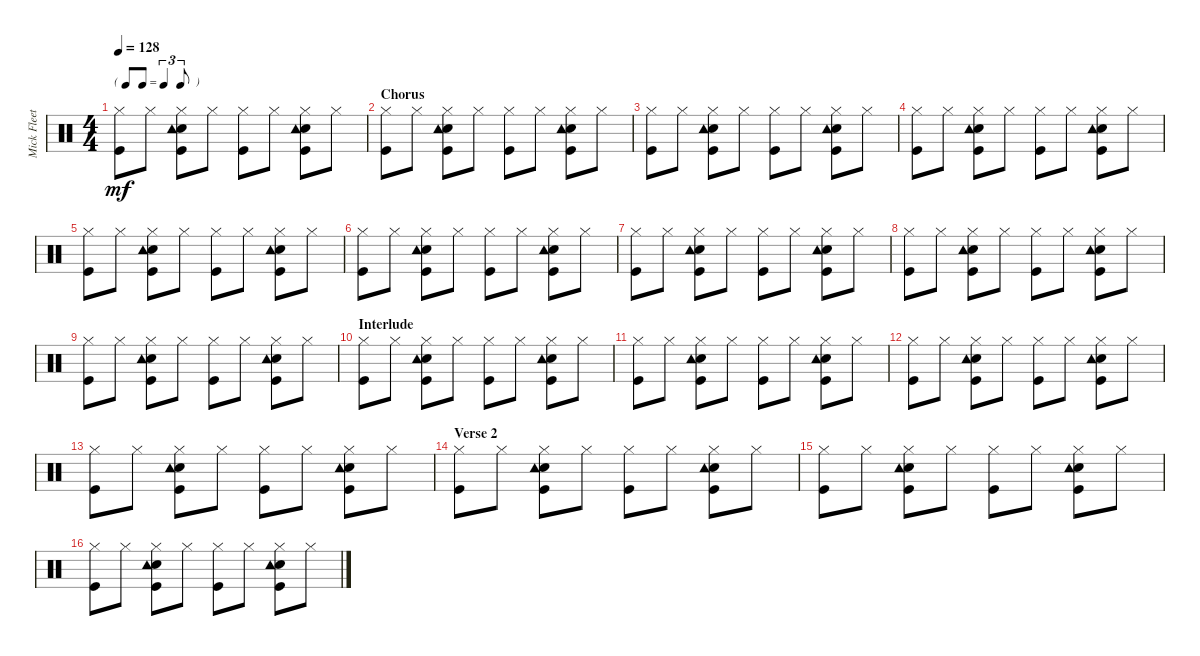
\track ("Mick Fleetwood - Drums" "Mick Fleet") {instrument percussion}
\staff {score}
\articulation defaults
\ts (4 4)
\tf triplet8th
\tempo 128
\clef neutral
\ks c
("Kick (hit)" "Hi-Hat (closed)").8{dy mf} "Hi-Hat (closed)".8 ("Kick (hit)" "Snare (hit) 2" "Hi-Hat (closed)" "Tambourine (hit)").8 "Hi-Hat (closed)".8 ("Kick (hit)" "Hi-Hat (closed)").8 "Hi-Hat (closed)".8 ("Kick (hit)" "Snare (hit) 2" "Hi-Hat (closed)" "Tambourine (hit)").8 "Hi-Hat (closed)".8 |
\section ("" "Chorus")
("Kick (hit)" "Hi-Hat (closed)").8 "Hi-Hat (closed)".8 ("Kick (hit)" "Snare (hit) 2" "Hi-Hat (closed)" "Tambourine (hit)").8 "Hi-Hat (closed)".8 ("Kick (hit)" "Hi-Hat (closed)").8 "Hi-Hat (closed)".8 ("Kick (hit)" "Snare (hit) 2" "Hi-Hat (closed)" "Tambourine (hit)").8 "Hi-Hat (closed)".8 |
("Kick (hit)" "Hi-Hat (closed)").8 "Hi-Hat (closed)".8 ("Kick (hit)" "Snare (hit) 2" "Hi-Hat (closed)" "Tambourine (hit)").8 "Hi-Hat (closed)".8 ("Kick (hit)" "Hi-Hat (closed)").8 "Hi-Hat (closed)".8 ("Kick (hit)" "Snare (hit) 2" "Hi-Hat (closed)" "Tambourine (hit)").8 "Hi-Hat (closed)".8 |
("Kick (hit)" "Hi-Hat (closed)").8 "Hi-Hat (closed)".8 ("Kick (hit)" "Snare (hit) 2" "Hi-Hat (closed)" "Tambourine (hit)").8 "Hi-Hat (closed)".8 ("Kick (hit)" "Hi-Hat (closed)").8 "Hi-Hat (closed)".8 ("Kick (hit)" "Snare (hit) 2" "Hi-Hat (closed)" "Tambourine (hit)").8 "Hi-Hat (closed)".8 |
("Kick (hit)" "Hi-Hat (closed)").8 "Hi-Hat (closed)".8 ("Kick (hit)" "Snare (hit) 2" "Hi-Hat (closed)" "Tambourine (hit)").8 "Hi-Hat (closed)".8 ("Kick (hit)" "Hi-Hat (closed)").8 "Hi-Hat (closed)".8 ("Kick (hit)" "Snare (hit) 2" "Hi-Hat (closed)" "Tambourine (hit)").8 "Hi-Hat (closed)".8 |
("Kick (hit)" "Hi-Hat (closed)").8 "Hi-Hat (closed)".8 ("Kick (hit)" "Snare (hit) 2" "Hi-Hat (closed)" "Tambourine (hit)").8 "Hi-Hat (closed)".8 ("Kick (hit)" "Hi-Hat (closed)").8 "Hi-Hat (closed)".8 ("Kick (hit)" "Snare (hit) 2" "Hi-Hat (closed)" "Tambourine (hit)").8 "Hi-Hat (closed)".8 |
("Kick (hit)" "Hi-Hat (closed)").8 "Hi-Hat (closed)".8 ("Kick (hit)" "Snare (hit) 2" "Hi-Hat (closed)" "Tambourine (hit)").8 "Hi-Hat (closed)".8 ("Kick (hit)" "Hi-Hat (closed)").8 "Hi-Hat (closed)".8 ("Kick (hit)" "Snare (hit) 2" "Hi-Hat (closed)" "Tambourine (hit)").8 "Hi-Hat (closed)".8 |
("Kick (hit)" "Hi-Hat (closed)").8 "Hi-Hat (closed)".8 ("Kick (hit)" "Snare (hit) 2" "Hi-Hat (closed)" "Tambourine (hit)").8 "Hi-Hat (closed)".8 ("Kick (hit)" "Hi-Hat (closed)").8 "Hi-Hat (closed)".8 ("Kick (hit)" "Snare (hit) 2" "Hi-Hat (closed)" "Tambourine (hit)").8 "Hi-Hat (closed)".8 |
("Kick (hit)" "Hi-Hat (closed)").8 "Hi-Hat (closed)".8 ("Kick (hit)" "Snare (hit) 2" "Hi-Hat (closed)" "Tambourine (hit)").8 "Hi-Hat (closed)".8 ("Kick (hit)" "Hi-Hat (closed)").8 "Hi-Hat (closed)".8 ("Kick (hit)" "Snare (hit) 2" "Hi-Hat (closed)" "Tambourine (hit)").8 "Hi-Hat (closed)".8 |
\section ("" "Interlude")
("Kick (hit)" "Hi-Hat (closed)").8 "Hi-Hat (closed)".8 ("Kick (hit)" "Snare (hit) 2" "Hi-Hat (closed)" "Tambourine (hit)").8 "Hi-Hat (closed)".8 ("Kick (hit)" "Hi-Hat (closed)").8 "Hi-Hat (closed)".8 ("Kick (hit)" "Snare (hit) 2" "Hi-Hat (closed)" "Tambourine (hit)").8 "Hi-Hat (closed)".8 |
("Kick (hit)" "Hi-Hat (closed)").8 "Hi-Hat (closed)".8 ("Kick (hit)" "Snare (hit) 2" "Hi-Hat (closed)" "Tambourine (hit)").8 "Hi-Hat (closed)".8 ("Kick (hit)" "Hi-Hat (closed)").8 "Hi-Hat (closed)".8 ("Kick (hit)" "Snare (hit) 2" "Hi-Hat (closed)" "Tambourine (hit)").8 "Hi-Hat (closed)".8 |
("Kick (hit)" "Hi-Hat (closed)").8 "Hi-Hat (closed)".8 ("Kick (hit)" "Snare (hit) 2" "Hi-Hat (closed)" "Tambourine (hit)").8 "Hi-Hat (closed)".8 ("Kick (hit)" "Hi-Hat (closed)").8 "Hi-Hat (closed)".8 ("Kick (hit)" "Snare (hit) 2" "Hi-Hat (closed)" "Tambourine (hit)").8 "Hi-Hat (closed)".8 |
("Kick (hit)" "Hi-Hat (closed)").8 "Hi-Hat (closed)".8 ("Kick (hit)" "Snare (hit) 2" "Hi-Hat (closed)" "Tambourine (hit)").8 "Hi-Hat (closed)".8 ("Kick (hit)" "Hi-Hat (closed)").8 "Hi-Hat (closed)".8 ("Kick (hit)" "Snare (hit) 2" "Hi-Hat (closed)" "Tambourine (hit)").8 "Hi-Hat (closed)".8 |
\section ("" "Verse 2")
("Kick (hit)" "Hi-Hat (closed)").8 "Hi-Hat (closed)".8 ("Kick (hit)" "Snare (hit) 2" "Hi-Hat (closed)" "Tambourine (hit)").8 "Hi-Hat (closed)".8 ("Kick (hit)" "Hi-Hat (closed)").8 "Hi-Hat (closed)".8 ("Kick (hit)" "Snare (hit) 2" "Hi-Hat (closed)" "Tambourine (hit)").8 "Hi-Hat (closed)".8 |
("Kick (hit)" "Hi-Hat (closed)").8 "Hi-Hat (closed)".8 ("Kick (hit)" "Snare (hit) 2" "Hi-Hat (closed)" "Tambourine (hit)").8 "Hi-Hat (closed)".8 ("Kick (hit)" "Hi-Hat (closed)").8 "Hi-Hat (closed)".8 ("Kick (hit)" "Snare (hit) 2" "Hi-Hat (closed)" "Tambourine (hit)").8 "Hi-Hat (closed)".8 |
("Kick (hit)" "Hi-Hat (closed)").8 "Hi-Hat (closed)".8 ("Kick (hit)" "Snare (hit) 2" "Hi-Hat (closed)" "Tambourine (hit)").8 "Hi-Hat (closed)".8 ("Kick (hit)" "Hi-Hat (closed)").8 "Hi-Hat (closed)".8 ("Kick (hit)" "Snare (hit) 2" "Hi-Hat (closed)" "Tambourine (hit)").8 "Hi-Hat (closed)".8
